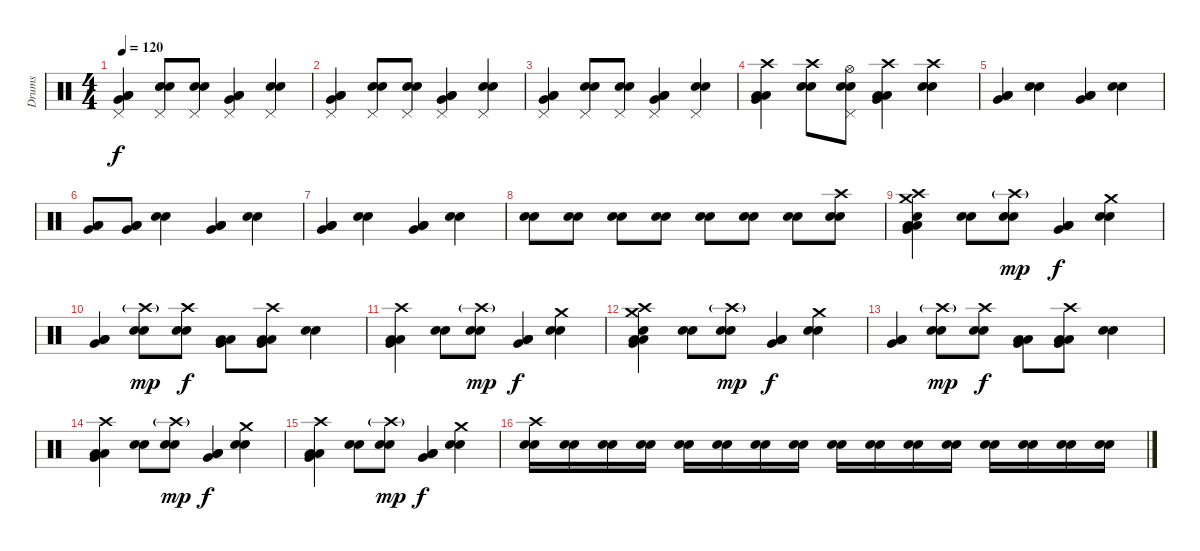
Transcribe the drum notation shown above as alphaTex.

\track ("Drums" "Drums") {instrument percussion}
\staff {score}
\articulation defaults
\ts (4 4)
\tempo 120
\clef neutral
\ks c
("Pedal Hi-Hat (hit)" "Low Floor Tom (hit)" "Very Low Tom (hit)" "Low Tom (hit)").4{dy f} ("Pedal Hi-Hat (hit)" "Electric Snare (hit)" "Snare (hit) 2").8 ("Pedal Hi-Hat (hit)" "Electric Snare (hit)" "Snare (hit) 2").8 ("Pedal Hi-Hat (hit)" "Low Tom (hit)" "Low Floor Tom (hit)" "Very Low Tom (hit)").4 ("Pedal Hi-Hat (hit)" "Electric Snare (hit)" "Snare (hit) 2").4 |
("Pedal Hi-Hat (hit)" "Low Floor Tom (hit)" "Very Low Tom (hit)" "Low Tom (hit)").4 ("Pedal Hi-Hat (hit)" "Electric Snare (hit)" "Snare (hit) 2").8 ("Pedal Hi-Hat (hit)" "Electric Snare (hit)" "Snare (hit) 2").8 ("Pedal Hi-Hat (hit)" "Low Tom (hit)" "Low Floor Tom (hit)" "Very Low Tom (hit)").4 ("Pedal Hi-Hat (hit)" "Electric Snare (hit)" "Snare (hit) 2").4 |
("Pedal Hi-Hat (hit)" "Low Floor Tom (hit)" "Very Low Tom (hit)" "Low Tom (hit)").4 ("Pedal Hi-Hat (hit)" "Electric Snare (hit)" "Snare (hit) 2").8 ("Pedal Hi-Hat (hit)" "Electric Snare (hit)" "Snare (hit) 2").8 ("Pedal Hi-Hat (hit)" "Low Tom (hit)" "Low Floor Tom (hit)" "Very Low Tom (hit)").4 ("Pedal Hi-Hat (hit)" "Electric Snare (hit)" "Snare (hit) 2").4 |
("Crash high (hit)" "Low Floor Tom (hit)" "Very Low Tom (hit)" "Low Tom (hit)").4 ("Crash high (hit)" "Electric Snare (hit)" "Snare (hit) 2").8 ("Hi-Hat (open)" "Pedal Hi-Hat (hit)" "Electric Snare (hit)" "Snare (hit) 2").8 ("Crash high (hit)" "Low Tom (hit)" "Low Floor Tom (hit)" "Very Low Tom (hit)").4 ("Crash high (hit)" "Electric Snare (hit)" "Snare (hit) 2").4 |
("Low Floor Tom (hit)" "Very Low Tom (hit)" "Low Tom (hit)").4 ("Electric Snare (hit)" "Snare (hit) 2").4 ("Low Floor Tom (hit)" "Very Low Tom (hit)" "Low Tom (hit)").4 ("Electric Snare (hit)" "Snare (hit) 2").4 |
("Low Floor Tom (hit)" "Very Low Tom (hit)" "Low Tom (hit)").8 ("Low Floor Tom (hit)" "Very Low Tom (hit)" "Low Tom (hit)").8 ("Electric Snare (hit)" "Snare (hit) 2").4 ("Low Floor Tom (hit)" "Very Low Tom (hit)" "Low Tom (hit)").4 ("Electric Snare (hit)" "Snare (hit) 2").4 |
("Low Floor Tom (hit)" "Very Low Tom (hit)" "Low Tom (hit)").4 ("Electric Snare (hit)" "Snare (hit) 2").4 ("Low Floor Tom (hit)" "Very Low Tom (hit)" "Low Tom (hit)").4 ("Electric Snare (hit)" "Snare (hit) 2").4 |
("Snare (hit) 2" "Electric Snare (hit)").8 ("Snare (hit) 2" "Electric Snare (hit)").8 ("Snare (hit) 2" "Electric Snare (hit)").8 ("Snare (hit) 2" "Electric Snare (hit)").8 ("Snare (hit) 2" "Electric Snare (hit)").8 ("Snare (hit) 2" "Electric Snare (hit)").8 ("Snare (hit) 2" "Electric Snare (hit)").8 ("Crash high (hit)" "Snare (hit) 2" "Electric Snare (hit)").8 |
("Electric Snare (hit)" "Crash high (hit)" "Crash medium (hit)" "Low Floor Tom (hit)" "Very Low Tom (hit)" "Low Tom (hit)").4 ("Electric Snare (hit)" "Snare (hit) 2").8 ("Crash high (hit)"{g} "Electric Snare (hit)" "Snare (hit) 2").8{dy mp} ("Low Tom (hit)" "Low Floor Tom (hit)" "Very Low Tom (hit)").4{dy f} ("Crash medium (hit)" "Electric Snare (hit)" "Snare (hit) 2").4 |
("Low Floor Tom (hit)" "Very Low Tom (hit)" "Low Tom (hit)").4 ("Crash high (hit)"{g} "Electric Snare (hit)" "Snare (hit) 2").8{dy mp} ("Crash high (hit)" "Electric Snare (hit)" "Snare (hit) 2").8{dy f} ("Low Tom (hit)" "Low Floor Tom (hit)" "Very Low Tom (hit)").8 ("Crash high (hit)" "Low Tom (hit)" "Low Floor Tom (hit)" "Very Low Tom (hit)").8 ("Electric Snare (hit)" "Snare (hit) 2").4 |
("Crash high (hit)" "Low Floor Tom (hit)" "Very Low Tom (hit)" "Low Tom (hit)").4 ("Electric Snare (hit)" "Snare (hit) 2").8 ("Crash high (hit)"{g} "Electric Snare (hit)" "Snare (hit) 2").8{dy mp} ("Low Tom (hit)" "Low Floor Tom (hit)" "Very Low Tom (hit)").4{dy f} ("Crash medium (hit)" "Electric Snare (hit)" "Snare (hit) 2").4 |
("Electric Snare (hit)" "Crash high (hit)" "Crash medium (hit)" "Low Floor Tom (hit)" "Very Low Tom (hit)" "Low Tom (hit)").4 ("Electric Snare (hit)" "Snare (hit) 2").8 ("Crash high (hit)"{g} "Electric Snare (hit)" "Snare (hit) 2").8{dy mp} ("Low Tom (hit)" "Low Floor Tom (hit)" "Very Low Tom (hit)").4{dy f} ("Crash medium (hit)" "Electric Snare (hit)" "Snare (hit) 2").4 |
("Low Floor Tom (hit)" "Very Low Tom (hit)" "Low Tom (hit)").4 ("Crash high (hit)"{g} "Electric Snare (hit)" "Snare (hit) 2").8{dy mp} ("Crash high (hit)" "Electric Snare (hit)" "Snare (hit) 2").8{dy f} ("Low Tom (hit)" "Low Floor Tom (hit)" "Very Low Tom (hit)").8 ("Crash high (hit)" "Low Tom (hit)" "Low Floor Tom (hit)" "Very Low Tom (hit)").8 ("Electric Snare (hit)" "Snare (hit) 2").4 |
("Crash high (hit)" "Low Floor Tom (hit)" "Very Low Tom (hit)" "Low Tom (hit)").4 ("Electric Snare (hit)" "Snare (hit) 2").8 ("Crash high (hit)"{g} "Electric Snare (hit)" "Snare (hit) 2").8{dy mp} ("Low Tom (hit)" "Low Floor Tom (hit)" "Very Low Tom (hit)").4{dy f} ("Crash medium (hit)" "Electric Snare (hit)" "Snare (hit) 2").4 |
("Crash high (hit)" "Low Floor Tom (hit)" "Very Low Tom (hit)" "Low Tom (hit)").4 ("Electric Snare (hit)" "Snare (hit) 2").8 ("Crash high (hit)"{g} "Electric Snare (hit)" "Snare (hit) 2").8{dy mp} ("Low Tom (hit)" "Low Floor Tom (hit)" "Very Low Tom (hit)").4{dy f} ("Crash medium (hit)" "Electric Snare (hit)" "Snare (hit) 2").4 |
("Crash high (hit)" "Electric Snare (hit)" "Snare (hit) 2").16 ("Electric Snare (hit)" "Snare (hit) 2").16 ("Electric Snare (hit)" "Snare (hit) 2").16 ("Electric Snare (hit)" "Snare (hit) 2").16 ("Electric Snare (hit)" "Snare (hit) 2").16 ("Electric Snare (hit)" "Snare (hit) 2").16 ("Electric Snare (hit)" "Snare (hit) 2").16 ("Electric Snare (hit)" "Snare (hit) 2").16 ("Electric Snare (hit)" "Snare (hit) 2").16 ("Electric Snare (hit)" "Snare (hit) 2").16 ("Electric Snare (hit)" "Snare (hit) 2").16 ("Electric Snare (hit)" "Snare (hit) 2").16 ("Electric Snare (hit)" "Snare (hit) 2").16 ("Electric Snare (hit)" "Snare (hit) 2").16 ("Electric Snare (hit)" "Snare (hit) 2").16 ("Electric Snare (hit)" "Snare (hit) 2").16
